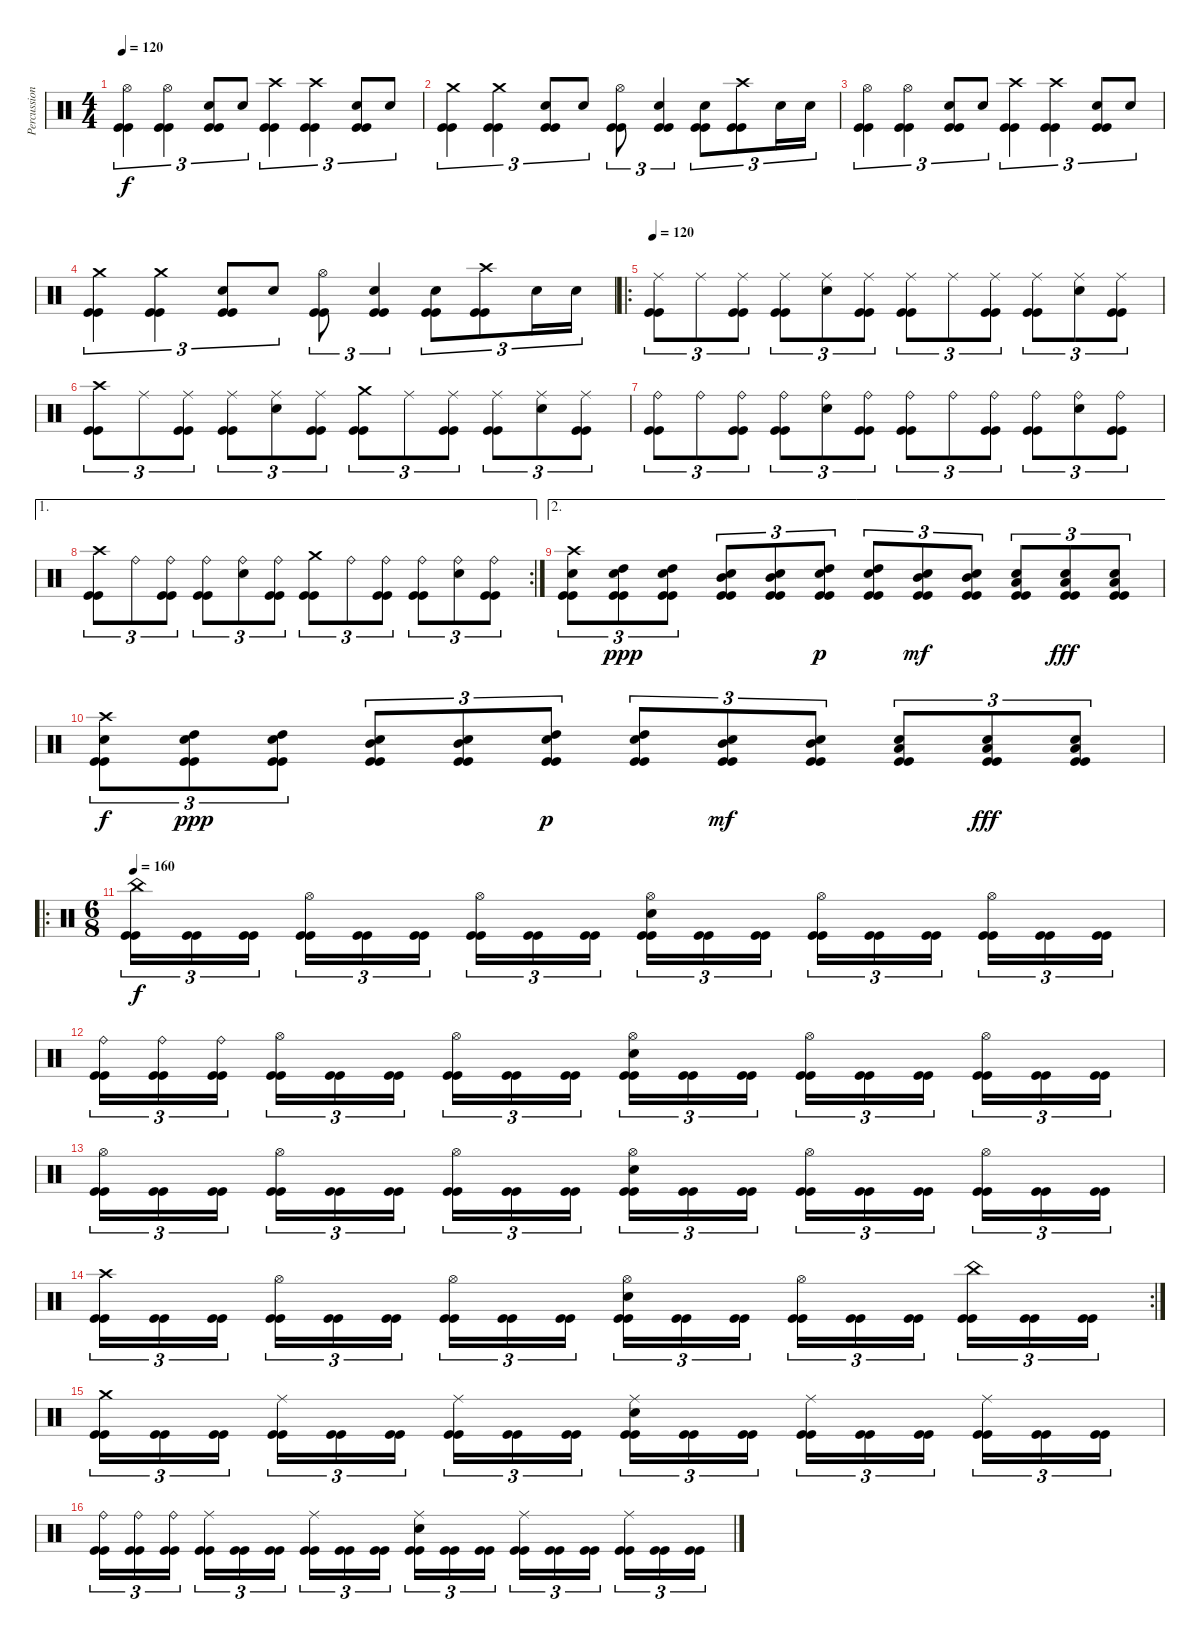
\track ("Percussion" "Percussion") {instrument percussion}
\staff {score}
\articulation defaults
\ts (4 4)
\tempo 120
\clef neutral
\ks c
("Hi-Hat (open)" "Kick (hit)" "Kick (hit)").4{tu (3 2) dy f} ("Hi-Hat (open)" "Kick (hit)" "Kick (hit)").4{tu (3 2)} ("Snare (hit) 2" "Kick (hit)" "Kick (hit)").8{tu (3 2)} "Snare (hit) 2".8{tu (3 2)} ("Crash high (hit)" "Kick (hit)" "Kick (hit)").4{tu (3 2)} ("Crash high (hit)" "Kick (hit)" "Kick (hit)").4{tu (3 2)} ("Snare (hit) 2" "Kick (hit)" "Kick (hit)").8{tu (3 2)} "Snare (hit) 2".8{tu (3 2)} |
("Crash medium (hit)" "Kick (hit)" "Kick (hit)").4{tu (3 2)} ("Crash medium (hit)" "Kick (hit)" "Kick (hit)").4{tu (3 2)} ("Snare (hit) 2" "Kick (hit)" "Kick (hit)").8{tu (3 2)} "Snare (hit) 2".8{tu (3 2)} ("Hi-Hat (open)" "Kick (hit)" "Kick (hit)").8{tu (3 2)} ("Snare (hit) 2" "Kick (hit)" "Kick (hit)").4{tu (3 2)} ("Snare (hit) 2" "Kick (hit)" "Kick (hit)").8{tu (3 2)} ("Crash high (hit)" "Kick (hit)" "Kick (hit)").8{tu (3 2)} "Snare (hit) 2".16{tu (3 2)} "Snare (hit) 2".16{tu (3 2)} |
("Hi-Hat (open)" "Kick (hit)" "Kick (hit)").4{tu (3 2)} ("Hi-Hat (open)" "Kick (hit)" "Kick (hit)").4{tu (3 2)} ("Snare (hit) 2" "Kick (hit)" "Kick (hit)").8{tu (3 2)} "Snare (hit) 2".8{tu (3 2)} ("Crash high (hit)" "Kick (hit)" "Kick (hit)").4{tu (3 2)} ("Crash high (hit)" "Kick (hit)" "Kick (hit)").4{tu (3 2)} ("Snare (hit) 2" "Kick (hit)" "Kick (hit)").8{tu (3 2)} "Snare (hit) 2".8{tu (3 2)} |
("Crash medium (hit)" "Kick (hit)" "Kick (hit)").4{tu (3 2)} ("Crash medium (hit)" "Kick (hit)" "Kick (hit)").4{tu (3 2)} ("Snare (hit) 2" "Kick (hit)" "Kick (hit)").8{tu (3 2)} "Snare (hit) 2".8{tu (3 2)} ("Hi-Hat (open)" "Kick (hit)" "Kick (hit)").8{tu (3 2)} ("Snare (hit) 2" "Kick (hit)" "Kick (hit)").4{tu (3 2)} ("Snare (hit) 2" "Kick (hit)" "Kick (hit)").8{tu (3 2)} ("Crash high (hit)" "Kick (hit)" "Kick (hit)").8{tu (3 2)} "Snare (hit) 2".16{tu (3 2)} "Snare (hit) 2".16{tu (3 2)} |
\ro
\tempo 120
("Ride (middle)" "Kick (hit)" "Kick (hit)").8{tu (3 2)} "Ride (middle)".8{tu (3 2)} ("Ride (middle)" "Kick (hit)" "Kick (hit)").8{tu (3 2)} ("Ride (middle)" "Kick (hit)" "Kick (hit)").8{tu (3 2)} ("Ride (middle)" "Snare (hit) 2").8{tu (3 2)} ("Ride (middle)" "Kick (hit)" "Kick (hit)").8{tu (3 2)} ("Ride (middle)" "Kick (hit)" "Kick (hit)").8{tu (3 2)} "Ride (middle)".8{tu (3 2)} ("Ride (middle)" "Kick (hit)" "Kick (hit)").8{tu (3 2)} ("Ride (middle)" "Kick (hit)" "Kick (hit)").8{tu (3 2)} ("Ride (middle)" "Snare (hit) 2").8{tu (3 2)} ("Ride (middle)" "Kick (hit)" "Kick (hit)").8{tu (3 2)} |
("Crash high (hit)" "Kick (hit)" "Kick (hit)").8{tu (3 2)} "Ride (middle)".8{tu (3 2)} ("Ride (middle)" "Kick (hit)" "Kick (hit)").8{tu (3 2)} ("Ride (middle)" "Kick (hit)" "Kick (hit)").8{tu (3 2)} ("Ride (middle)" "Snare (hit) 2").8{tu (3 2)} ("Ride (middle)" "Kick (hit)" "Kick (hit)").8{tu (3 2)} ("Crash medium (hit)" "Kick (hit)" "Kick (hit)").8{tu (3 2)} "Ride (middle)".8{tu (3 2)} ("Ride (middle)" "Kick (hit)" "Kick (hit)").8{tu (3 2)} ("Ride (middle)" "Kick (hit)" "Kick (hit)").8{tu (3 2)} ("Ride (middle)" "Snare (hit) 2").8{tu (3 2)} ("Ride (middle)" "Kick (hit)" "Kick (hit)").8{tu (3 2)} |
("Ride (bell)" "Kick (hit)" "Kick (hit)").8{tu (3 2)} "Ride (bell)".8{tu (3 2)} ("Ride (bell)" "Kick (hit)" "Kick (hit)").8{tu (3 2)} ("Ride (bell)" "Kick (hit)" "Kick (hit)").8{tu (3 2)} ("Ride (bell)" "Snare (hit) 2").8{tu (3 2)} ("Ride (bell)" "Kick (hit)" "Kick (hit)").8{tu (3 2)} ("Ride (bell)" "Kick (hit)" "Kick (hit)").8{tu (3 2)} "Ride (bell)".8{tu (3 2)} ("Ride (bell)" "Kick (hit)" "Kick (hit)").8{tu (3 2)} ("Ride (bell)" "Kick (hit)" "Kick (hit)").8{tu (3 2)} ("Ride (bell)" "Snare (hit) 2").8{tu (3 2)} ("Ride (bell)" "Kick (hit)" "Kick (hit)").8{tu (3 2)} |
\ae 1
\rc 2
("Crash high (hit)" "Kick (hit)" "Kick (hit)").8{tu (3 2)} "Ride (bell)".8{tu (3 2)} ("Ride (bell)" "Kick (hit)" "Kick (hit)").8{tu (3 2)} ("Ride (bell)" "Kick (hit)" "Kick (hit)").8{tu (3 2)} ("Ride (bell)" "Snare (hit) 2").8{tu (3 2)} ("Ride (bell)" "Kick (hit)" "Kick (hit)").8{tu (3 2)} ("Crash medium (hit)" "Kick (hit)" "Kick (hit)").8{tu (3 2)} "Ride (bell)".8{tu (3 2)} ("Ride (bell)" "Kick (hit)" "Kick (hit)").8{tu (3 2)} ("Ride (bell)" "Kick (hit)" "Kick (hit)").8{tu (3 2)} ("Ride (bell)" "Snare (hit) 2").8{tu (3 2)} ("Ride (bell)" "Kick (hit)" "Kick (hit)").8{tu (3 2)} |
\ae 2
("Crash high (hit)" "Snare (hit) 2" "Kick (hit)" "Kick (hit)").8{tu (3 2)} ("High Tom (hit)" "Snare (hit) 2" "Kick (hit)" "Kick (hit)").8{tu (3 2) dy ppp} ("High Tom (hit)" "Snare (hit) 2" "Kick (hit)" "Kick (hit)").8{tu (3 2)} ("Mid Tom (hit)" "Snare (hit) 2" "Kick (hit)" "Kick (hit)").8{tu (3 2)} ("Mid Tom (hit)" "Snare (hit) 2" "Kick (hit)" "Kick (hit)").8{tu (3 2)} ("High Tom (hit)" "Snare (hit) 2" "Kick (hit)" "Kick (hit)").8{tu (3 2) dy p} ("High Tom (hit)" "Snare (hit) 2" "Kick (hit)" "Kick (hit)").8{tu (3 2)} ("Mid Tom (hit)" "Snare (hit) 2" "Kick (hit)" "Kick (hit)").8{tu (3 2) dy mf} ("Mid Tom (hit)" "Snare (hit) 2" "Kick (hit)" "Kick (hit)").8{tu (3 2)} ("Low Tom (hit)" "Snare (hit) 2" "Kick (hit)" "Kick (hit)").8{tu (3 2)} ("Low Tom (hit)" "Snare (hit) 2" "Kick (hit)" "Kick (hit)").8{tu (3 2) dy fff} ("Low Tom (hit)" "Snare (hit) 2" "Kick (hit)" "Kick (hit)").8{tu (3 2)} |
("Crash high (hit)" "Snare (hit) 2" "Kick (hit)" "Kick (hit)").8{tu (3 2) dy f} ("High Tom (hit)" "Snare (hit) 2" "Kick (hit)" "Kick (hit)").8{tu (3 2) dy ppp} ("High Tom (hit)" "Snare (hit) 2" "Kick (hit)" "Kick (hit)").8{tu (3 2)} ("Mid Tom (hit)" "Snare (hit) 2" "Kick (hit)" "Kick (hit)").8{tu (3 2)} ("Mid Tom (hit)" "Snare (hit) 2" "Kick (hit)" "Kick (hit)").8{tu (3 2)} ("High Tom (hit)" "Snare (hit) 2" "Kick (hit)" "Kick (hit)").8{tu (3 2) dy p} ("High Tom (hit)" "Snare (hit) 2" "Kick (hit)" "Kick (hit)").8{tu (3 2)} ("Mid Tom (hit)" "Snare (hit) 2" "Kick (hit)" "Kick (hit)").8{tu (3 2) dy mf} ("Mid Tom (hit)" "Snare (hit) 2" "Kick (hit)" "Kick (hit)").8{tu (3 2)} ("Low Tom (hit)" "Snare (hit) 2" "Kick (hit)" "Kick (hit)").8{tu (3 2)} ("Low Tom (hit)" "Snare (hit) 2" "Kick (hit)" "Kick (hit)").8{tu (3 2) dy fff} ("Low Tom (hit)" "Snare (hit) 2" "Kick (hit)" "Kick (hit)").8{tu (3 2)} |
\ro
\ts (6 8)
\tempo 160
("China (hit)" "Kick (hit)" "Kick (hit)").16{tu (3 2) dy f} ("Kick (hit)" "Kick (hit)").16{tu (3 2)} ("Kick (hit)" "Kick (hit)").16{tu (3 2)} ("Hi-Hat (open)" "Kick (hit)" "Kick (hit)").16{tu (3 2)} ("Kick (hit)" "Kick (hit)").16{tu (3 2)} ("Kick (hit)" "Kick (hit)").16{tu (3 2)} ("Hi-Hat (open)" "Kick (hit)" "Kick (hit)").16{tu (3 2)} ("Kick (hit)" "Kick (hit)").16{tu (3 2)} ("Kick (hit)" "Kick (hit)").16{tu (3 2)} ("Hi-Hat (open)" "Snare (hit) 2" "Kick (hit)" "Kick (hit)").16{tu (3 2)} ("Kick (hit)" "Kick (hit)").16{tu (3 2)} ("Kick (hit)" "Kick (hit)").16{tu (3 2)} ("Hi-Hat (open)" "Kick (hit)" "Kick (hit)").16{tu (3 2)} ("Kick (hit)" "Kick (hit)").16{tu (3 2)} ("Kick (hit)" "Kick (hit)").16{tu (3 2)} ("Hi-Hat (open)" "Kick (hit)" "Kick (hit)").16{tu (3 2)} ("Kick (hit)" "Kick (hit)").16{tu (3 2)} ("Kick (hit)" "Kick (hit)").16{tu (3 2)} |
("Ride (bell)" "Kick (hit)" "Kick (hit)").16{tu (3 2)} ("Ride (bell)" "Kick (hit)" "Kick (hit)").16{tu (3 2)} ("Ride (bell)" "Kick (hit)" "Kick (hit)").16{tu (3 2)} ("Hi-Hat (open)" "Kick (hit)" "Kick (hit)").16{tu (3 2)} ("Kick (hit)" "Kick (hit)").16{tu (3 2)} ("Kick (hit)" "Kick (hit)").16{tu (3 2)} ("Hi-Hat (open)" "Kick (hit)" "Kick (hit)").16{tu (3 2)} ("Kick (hit)" "Kick (hit)").16{tu (3 2)} ("Kick (hit)" "Kick (hit)").16{tu (3 2)} ("Hi-Hat (open)" "Snare (hit) 2" "Kick (hit)" "Kick (hit)").16{tu (3 2)} ("Kick (hit)" "Kick (hit)").16{tu (3 2)} ("Kick (hit)" "Kick (hit)").16{tu (3 2)} ("Hi-Hat (open)" "Kick (hit)" "Kick (hit)").16{tu (3 2)} ("Kick (hit)" "Kick (hit)").16{tu (3 2)} ("Kick (hit)" "Kick (hit)").16{tu (3 2)} ("Hi-Hat (open)" "Kick (hit)" "Kick (hit)").16{tu (3 2)} ("Kick (hit)" "Kick (hit)").16{tu (3 2)} ("Kick (hit)" "Kick (hit)").16{tu (3 2)} |
("Hi-Hat (open)" "Kick (hit)" "Kick (hit)").16{tu (3 2)} ("Kick (hit)" "Kick (hit)").16{tu (3 2)} ("Kick (hit)" "Kick (hit)").16{tu (3 2)} ("Hi-Hat (open)" "Kick (hit)" "Kick (hit)").16{tu (3 2)} ("Kick (hit)" "Kick (hit)").16{tu (3 2)} ("Kick (hit)" "Kick (hit)").16{tu (3 2)} ("Hi-Hat (open)" "Kick (hit)" "Kick (hit)").16{tu (3 2)} ("Kick (hit)" "Kick (hit)").16{tu (3 2)} ("Kick (hit)" "Kick (hit)").16{tu (3 2)} ("Hi-Hat (open)" "Snare (hit) 2" "Kick (hit)" "Kick (hit)").16{tu (3 2)} ("Kick (hit)" "Kick (hit)").16{tu (3 2)} ("Kick (hit)" "Kick (hit)").16{tu (3 2)} ("Hi-Hat (open)" "Kick (hit)" "Kick (hit)").16{tu (3 2)} ("Kick (hit)" "Kick (hit)").16{tu (3 2)} ("Kick (hit)" "Kick (hit)").16{tu (3 2)} ("Hi-Hat (open)" "Kick (hit)" "Kick (hit)").16{tu (3 2)} ("Kick (hit)" "Kick (hit)").16{tu (3 2)} ("Kick (hit)" "Kick (hit)").16{tu (3 2)} |
\rc 2
("Crash high (hit)" "Kick (hit)" "Kick (hit)").16{tu (3 2)} ("Kick (hit)" "Kick (hit)").16{tu (3 2)} ("Kick (hit)" "Kick (hit)").16{tu (3 2)} ("Hi-Hat (open)" "Kick (hit)" "Kick (hit)").16{tu (3 2)} ("Kick (hit)" "Kick (hit)").16{tu (3 2)} ("Kick (hit)" "Kick (hit)").16{tu (3 2)} ("Hi-Hat (open)" "Kick (hit)" "Kick (hit)").16{tu (3 2)} ("Kick (hit)" "Kick (hit)").16{tu (3 2)} ("Kick (hit)" "Kick (hit)").16{tu (3 2)} ("Hi-Hat (open)" "Snare (hit) 2" "Kick (hit)" "Kick (hit)").16{tu (3 2)} ("Kick (hit)" "Kick (hit)").16{tu (3 2)} ("Kick (hit)" "Kick (hit)").16{tu (3 2)} ("Hi-Hat (open)" "Kick (hit)" "Kick (hit)").16{tu (3 2)} ("Kick (hit)" "Kick (hit)").16{tu (3 2)} ("Kick (hit)" "Kick (hit)").16{tu (3 2)} ("China (hit)" "Kick (hit)" "Kick (hit)").16{tu (3 2)} ("Kick (hit)" "Kick (hit)").16{tu (3 2)} ("Kick (hit)" "Kick (hit)").16{tu (3 2)} |
("Crash medium (hit)" "Kick (hit)" "Kick (hit)").16{tu (3 2)} ("Kick (hit)" "Kick (hit)").16{tu (3 2)} ("Kick (hit)" "Kick (hit)").16{tu (3 2)} ("Ride (middle)" "Kick (hit)" "Kick (hit)").16{tu (3 2)} ("Kick (hit)" "Kick (hit)").16{tu (3 2)} ("Kick (hit)" "Kick (hit)").16{tu (3 2)} ("Ride (middle)" "Kick (hit)" "Kick (hit)").16{tu (3 2)} ("Kick (hit)" "Kick (hit)").16{tu (3 2)} ("Kick (hit)" "Kick (hit)").16{tu (3 2)} ("Ride (middle)" "Snare (hit) 2" "Kick (hit)" "Kick (hit)").16{tu (3 2)} ("Kick (hit)" "Kick (hit)").16{tu (3 2)} ("Kick (hit)" "Kick (hit)").16{tu (3 2)} ("Ride (middle)" "Kick (hit)" "Kick (hit)").16{tu (3 2)} ("Kick (hit)" "Kick (hit)").16{tu (3 2)} ("Kick (hit)" "Kick (hit)").16{tu (3 2)} ("Ride (middle)" "Kick (hit)" "Kick (hit)").16{tu (3 2)} ("Kick (hit)" "Kick (hit)").16{tu (3 2)} ("Kick (hit)" "Kick (hit)").16{tu (3 2)} |
("Ride (bell)" "Kick (hit)" "Kick (hit)").16{tu (3 2)} ("Ride (bell)" "Kick (hit)" "Kick (hit)").16{tu (3 2)} ("Ride (bell)" "Kick (hit)" "Kick (hit)").16{tu (3 2)} ("Ride (middle)" "Kick (hit)" "Kick (hit)").16{tu (3 2)} ("Kick (hit)" "Kick (hit)").16{tu (3 2)} ("Kick (hit)" "Kick (hit)").16{tu (3 2)} ("Ride (middle)" "Kick (hit)" "Kick (hit)").16{tu (3 2)} ("Kick (hit)" "Kick (hit)").16{tu (3 2)} ("Kick (hit)" "Kick (hit)").16{tu (3 2)} ("Ride (middle)" "Snare (hit) 2" "Kick (hit)" "Kick (hit)").16{tu (3 2)} ("Kick (hit)" "Kick (hit)").16{tu (3 2)} ("Kick (hit)" "Kick (hit)").16{tu (3 2)} ("Ride (middle)" "Kick (hit)" "Kick (hit)").16{tu (3 2)} ("Kick (hit)" "Kick (hit)").16{tu (3 2)} ("Kick (hit)" "Kick (hit)").16{tu (3 2)} ("Ride (middle)" "Kick (hit)" "Kick (hit)").16{tu (3 2)} ("Kick (hit)" "Kick (hit)").16{tu (3 2)} ("Kick (hit)" "Kick (hit)").16{tu (3 2)}
